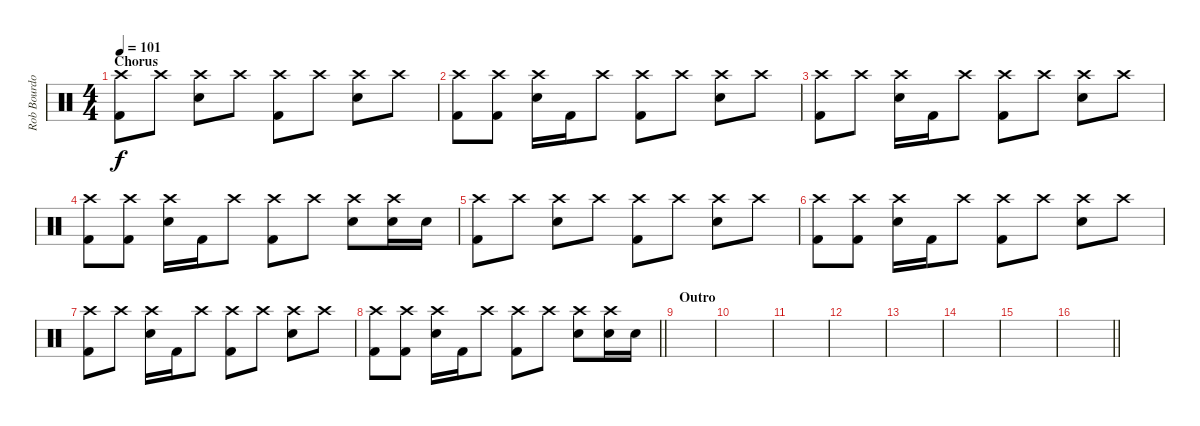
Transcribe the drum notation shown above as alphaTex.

\track ("Rob Bourdon" "Rob Bourdo") {instrument percussion}
\staff {score}
\articulation defaults
\ts (4 4)
\section ("" "Chorus")
\tempo 101
\clef neutral
\ks c
("Crash high (hit)" "Kick (hit) 2").8{dy f} "Crash high (hit)".8 ("Crash high (hit)" "Electric Snare (hit)").8 "Crash high (hit)".8 ("Crash high (hit)" "Kick (hit) 2").8 "Crash high (hit)".8 ("Crash high (hit)" "Electric Snare (hit)").8 "Crash high (hit)".8 |
("Crash high (hit)" "Kick (hit) 2").8 ("Crash high (hit)" "Kick (hit) 2").8 ("Crash high (hit)" "Electric Snare (hit)").16 "Kick (hit) 2".16 "Crash high (hit)".8 ("Crash high (hit)" "Kick (hit) 2").8 "Crash high (hit)".8 ("Crash high (hit)" "Electric Snare (hit)").8 "Crash high (hit)".8 |
("Crash high (hit)" "Kick (hit) 2").8 "Crash high (hit)".8 ("Crash high (hit)" "Electric Snare (hit)").16 "Kick (hit) 2".16 "Crash high (hit)".8 ("Crash high (hit)" "Kick (hit) 2").8 "Crash high (hit)".8 ("Crash high (hit)" "Electric Snare (hit)").8 "Crash high (hit)".8 |
("Crash high (hit)" "Kick (hit) 2").8 ("Crash high (hit)" "Kick (hit) 2").8 ("Crash high (hit)" "Electric Snare (hit)").16 "Kick (hit) 2".16 "Crash high (hit)".8 ("Crash high (hit)" "Kick (hit) 2").8 "Crash high (hit)".8 ("Crash high (hit)" "Electric Snare (hit)").8 ("Crash high (hit)" "Electric Snare (hit)").16 "Electric Snare (hit)".16 |
("Crash high (hit)" "Kick (hit) 2").8 "Crash high (hit)".8 ("Crash high (hit)" "Electric Snare (hit)").8 "Crash high (hit)".8 ("Crash high (hit)" "Kick (hit) 2").8 "Crash high (hit)".8 ("Crash high (hit)" "Electric Snare (hit)").8 "Crash high (hit)".8 |
("Crash high (hit)" "Kick (hit) 2").8 ("Crash high (hit)" "Kick (hit) 2").8 ("Crash high (hit)" "Electric Snare (hit)").16 "Kick (hit) 2".16 "Crash high (hit)".8 ("Crash high (hit)" "Kick (hit) 2").8 "Crash high (hit)".8 ("Crash high (hit)" "Electric Snare (hit)").8 "Crash high (hit)".8 |
("Crash high (hit)" "Kick (hit) 2").8 "Crash high (hit)".8 ("Crash high (hit)" "Electric Snare (hit)").16 "Kick (hit) 2".16 "Crash high (hit)".8 ("Crash high (hit)" "Kick (hit) 2").8 "Crash high (hit)".8 ("Crash high (hit)" "Electric Snare (hit)").8 "Crash high (hit)".8 |
\barLineRight lightlight
("Crash high (hit)" "Kick (hit) 2").8 ("Crash high (hit)" "Kick (hit) 2").8 ("Crash high (hit)" "Electric Snare (hit)").16 "Kick (hit) 2".16 "Crash high (hit)".8 ("Crash high (hit)" "Kick (hit) 2").8 "Crash high (hit)".8 ("Crash high (hit)" "Electric Snare (hit)").8 ("Crash high (hit)" "Electric Snare (hit)").16 "Electric Snare (hit)".16 |
\section ("" "Outro")
|
|
|
|
|
|
|
\barLineRight lightlight
